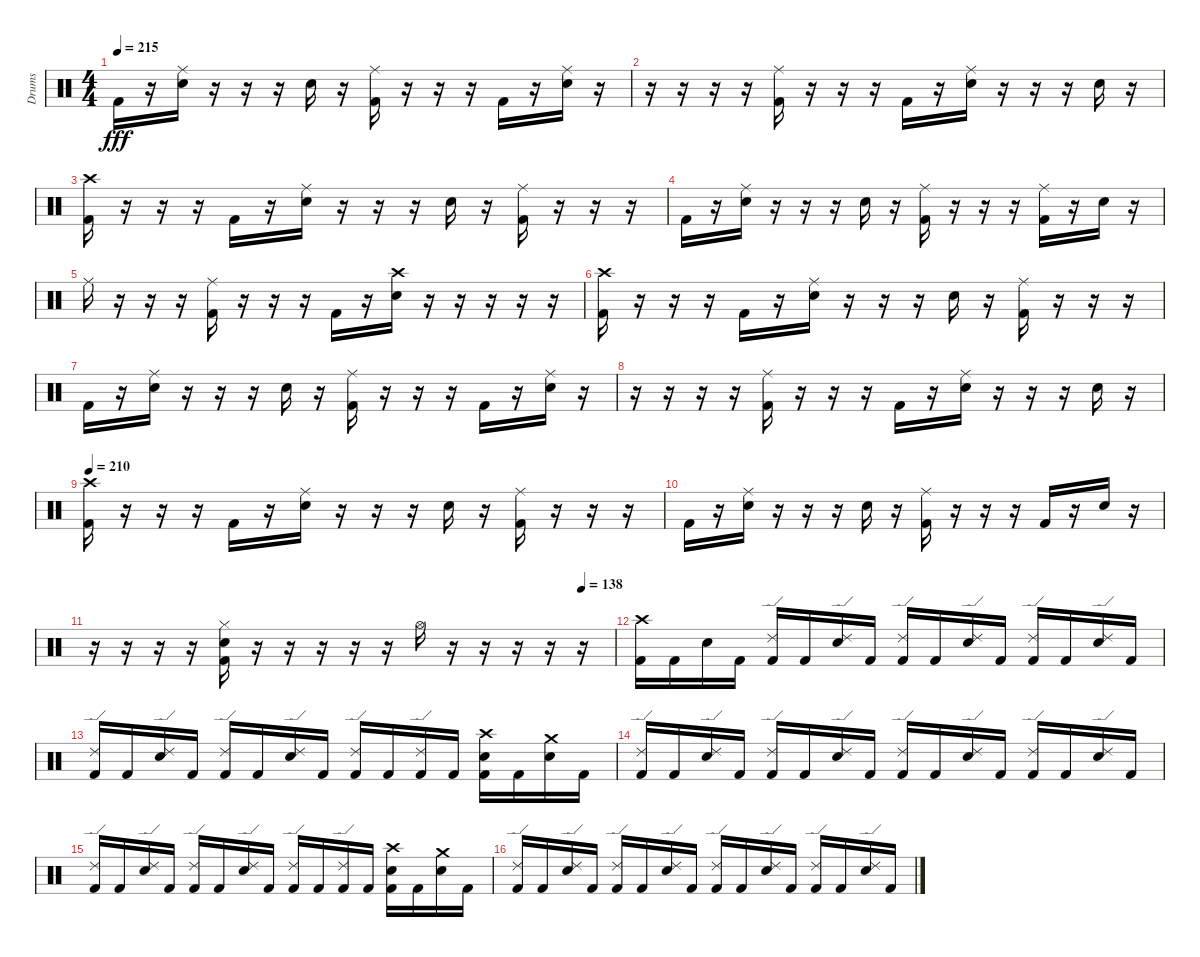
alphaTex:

\track ("Drums" "Drums") {instrument percussion}
\staff {score}
\articulation defaults
\ts (4 4)
\tempo 215
\clef neutral
\ks c "Kick (hit) 2".16{dy fff}
r.16 ("Ride (middle)" "Snare (hit) 2").16 r.16 r.16 r.16 "Snare (hit) 2".16 r.16 ("Ride (middle)" "Kick (hit) 2").16 r.16 r.16 r.16 "Kick (hit) 2".16 r.16 ("Ride (middle)" "Snare (hit) 2").16 r.16 |
r.16 r.16 r.16 r.16 ("Ride (middle)" "Kick (hit) 2").16 r.16 r.16 r.16 "Kick (hit) 2".16 r.16 ("Ride (middle)" "Snare (hit) 2").16 r.16 r.16 r.16 "Snare (hit) 2".16 r.16 |
("Crash high (hit)" "Kick (hit) 2").16 r.16 r.16 r.16 "Kick (hit) 2".16 r.16 ("Ride (middle)" "Snare (hit) 2").16 r.16 r.16 r.16 "Snare (hit) 2".16 r.16 ("Ride (middle)" "Kick (hit) 2").16 r.16 r.16 r.16 |
"Kick (hit) 2".16 r.16 ("Ride (middle)" "Snare (hit) 2").16 r.16 r.16 r.16 "Snare (hit) 2".16 r.16 ("Ride (middle)" "Kick (hit) 2").16 r.16 r.16 r.16 ("Ride (middle)" "Kick (hit) 2").16 r.16 "Snare (hit) 2".16 r.16 |
"Ride (middle)".16 r.16 r.16 r.16 ("Ride (middle)" "Kick (hit) 2").16 r.16 r.16 r.16 "Kick (hit) 2".16 r.16 ("Crash high (hit)" "Snare (hit) 2").16 r.16 r.16 r.16 r.16 r.16 |
("Crash high (hit)" "Kick (hit) 2").16 r.16 r.16 r.16 "Kick (hit) 2".16 r.16 ("Ride (middle)" "Snare (hit) 2").16 r.16 r.16 r.16 "Snare (hit) 2".16 r.16 ("Ride (middle)" "Kick (hit) 2").16 r.16 r.16 r.16 |
"Kick (hit) 2".16 r.16 ("Ride (middle)" "Snare (hit) 2").16 r.16 r.16 r.16 "Snare (hit) 2".16 r.16 ("Ride (middle)" "Kick (hit) 2").16 r.16 r.16 r.16 "Kick (hit) 2".16 r.16 ("Ride (middle)" "Snare (hit) 2").16 r.16 |
r.16 r.16 r.16 r.16 ("Ride (middle)" "Kick (hit) 2").16 r.16 r.16 r.16 "Kick (hit) 2".16 r.16 ("Ride (middle)" "Snare (hit) 2").16 r.16 r.16 r.16 "Snare (hit) 2".16 r.16 |
\tempo 210
("Crash high (hit)" "Kick (hit) 2").16 r.16 r.16 r.16 "Kick (hit) 2".16 r.16 ("Ride (middle)" "Snare (hit) 2").16 r.16 r.16 r.16 "Snare (hit) 2".16 r.16 ("Ride (middle)" "Kick (hit) 2").16 r.16 r.16 r.16 |
"Kick (hit) 2".16 r.16 ("Ride (middle)" "Snare (hit) 2").16 r.16 r.16 r.16 "Snare (hit) 2".16 r.16 ("Ride (middle)" "Kick (hit) 2").16 r.16 r.16 r.16 "Kick (hit) 2".16 r.16 "Snare (hit) 2".16 r.16 |
\tempo (138 0.9375)
r.16 r.16 r.16 r.16 ("Hi-Hat (closed)" "Snare (hit) 2" "Kick (hit) 2").16 r.16 r.16 r.16 r.16 r.16 "Hi-Hat (open)".16 r.16 r.16 r.16 r.16 r.16 |
("Crash high (hit)" "Kick (hit) 2").16 "Kick (hit) 2".16 "Snare (hit) 2".16 "Kick (hit) 2".16 ("Ride (edge) 2" "Kick (hit) 2").16 "Kick (hit) 2".16 ("Ride (edge) 2" "Snare (hit) 2").16 "Kick (hit) 2".16 ("Ride (edge) 2" "Kick (hit) 2").16 "Kick (hit) 2".16 ("Ride (edge) 2" "Snare (hit) 2").16 "Kick (hit) 2".16 ("Ride (edge) 2" "Kick (hit) 2").16 "Kick (hit) 2".16 ("Ride (edge) 2" "Snare (hit) 2").16 "Kick (hit) 2".16 |
("Ride (edge) 2" "Kick (hit) 2").16 "Kick (hit) 2".16 ("Ride (edge) 2" "Snare (hit) 2").16 "Kick (hit) 2".16 ("Ride (edge) 2" "Kick (hit) 2").16 "Kick (hit) 2".16 ("Ride (edge) 2" "Snare (hit) 2").16 "Kick (hit) 2".16 ("Ride (edge) 2" "Kick (hit) 2").16 "Kick (hit) 2".16 ("Ride (edge) 2" "Kick (hit) 2").16 "Kick (hit) 2".16 ("Crash high (hit)" "Snare (hit) 2" "Kick (hit) 2").16 "Kick (hit) 2".16 ("Crash medium (hit)" "Snare (hit) 2").16 "Kick (hit) 2".16 |
("Ride (edge) 2" "Kick (hit) 2").16 "Kick (hit) 2".16 ("Ride (edge) 2" "Snare (hit) 2").16 "Kick (hit) 2".16 ("Ride (edge) 2" "Kick (hit) 2").16 "Kick (hit) 2".16 ("Ride (edge) 2" "Snare (hit) 2").16 "Kick (hit) 2".16 ("Ride (edge) 2" "Kick (hit) 2").16 "Kick (hit) 2".16 ("Ride (edge) 2" "Snare (hit) 2").16 "Kick (hit) 2".16 ("Ride (edge) 2" "Kick (hit) 2").16 "Kick (hit) 2".16 ("Ride (edge) 2" "Snare (hit) 2").16 "Kick (hit) 2".16 |
("Ride (edge) 2" "Kick (hit) 2").16 "Kick (hit) 2".16 ("Ride (edge) 2" "Snare (hit) 2").16 "Kick (hit) 2".16 ("Ride (edge) 2" "Kick (hit) 2").16 "Kick (hit) 2".16 ("Ride (edge) 2" "Snare (hit) 2").16 "Kick (hit) 2".16 ("Ride (edge) 2" "Kick (hit) 2").16 "Kick (hit) 2".16 ("Ride (edge) 2" "Kick (hit) 2").16 "Kick (hit) 2".16 ("Crash high (hit)" "Snare (hit) 2" "Kick (hit) 2").16 "Kick (hit) 2".16 ("Crash medium (hit)" "Snare (hit) 2").16 "Kick (hit) 2".16 |
("Ride (edge) 2" "Kick (hit) 2").16 "Kick (hit) 2".16 ("Ride (edge) 2" "Snare (hit) 2").16 "Kick (hit) 2".16 ("Ride (edge) 2" "Kick (hit) 2").16 "Kick (hit) 2".16 ("Ride (edge) 2" "Snare (hit) 2").16 "Kick (hit) 2".16 ("Ride (edge) 2" "Kick (hit) 2").16 "Kick (hit) 2".16 ("Ride (edge) 2" "Snare (hit) 2").16 "Kick (hit) 2".16 ("Ride (edge) 2" "Kick (hit) 2").16 "Kick (hit) 2".16 ("Ride (edge) 2" "Snare (hit) 2").16 "Kick (hit) 2".16
